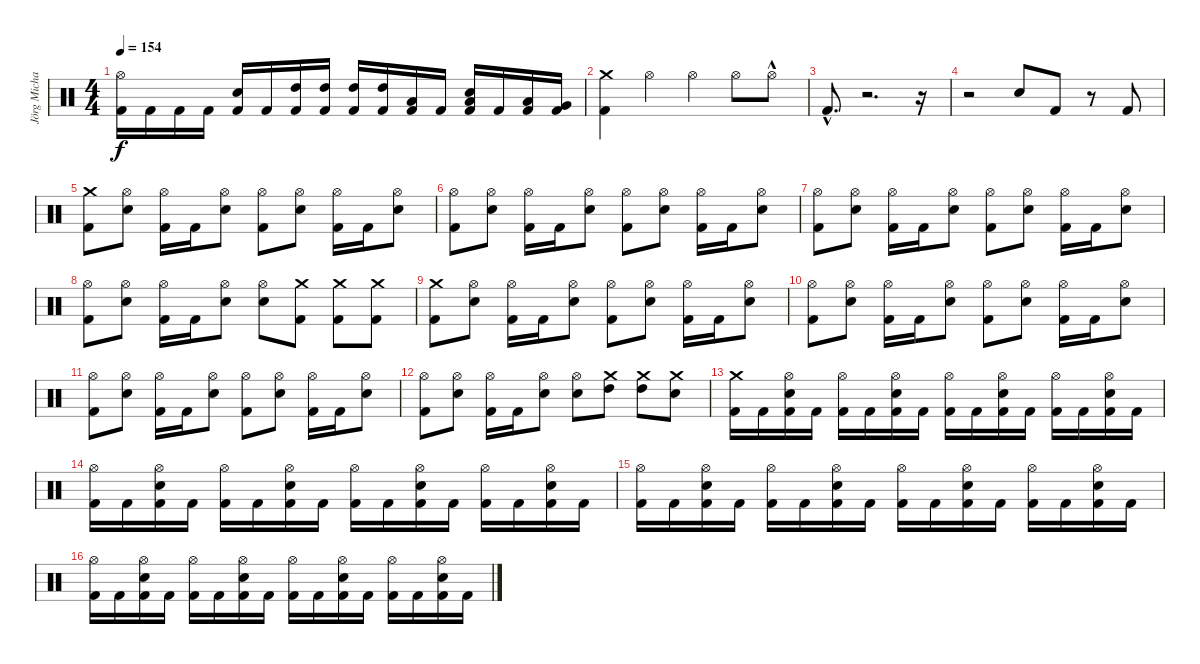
\track ("Jörg Michael" "Jörg Micha") {instrument percussion}
\staff {score}
\articulation defaults
\ts (4 4)
\tempo 154
\clef neutral
\ks c
("Hi-Hat (open)" "Kick (hit) 2").16{dy f} "Kick (hit) 2".16 "Kick (hit) 2".16 "Kick (hit) 2".16 ("Snare (hit) 2" "Kick (hit) 2").16 "Kick (hit) 2".16 ("High Tom (hit)" "Kick (hit) 2").16 ("High Tom (hit)" "Kick (hit) 2").16 ("High Tom (hit)" "Kick (hit) 2").16 ("High Tom (hit)" "Kick (hit) 2").16 ("Low Tom (hit)" "Kick (hit) 2").16 "Kick (hit) 2".16 ("Low Tom (hit)" "Snare (hit) 2" "Kick (hit) 2").16 "Kick (hit) 2".16 ("Low Floor Tom (hit)" "Kick (hit) 2").16 ("Very Low Tom (hit)" "Kick (hit) 2").16 |
("Crash medium (hit)" "Kick (hit) 2").4 "Hi-Hat (open)".4 "Hi-Hat (open)".4 "Hi-Hat (open)".8 "Hi-Hat (open)"{hac}.8 |
"Kick (hit) 2"{hac}.8{d} r.2{d} r.16 |
r.2 "Snare (hit) 2".8 "Kick (hit) 2".8 r.8 "Kick (hit) 2".8 |
("Kick (hit) 2" "Crash medium (hit)").8 ("Snare (hit) 2" "Hi-Hat (open)").8 ("Kick (hit) 2" "Hi-Hat (open)").16 "Kick (hit) 2".16 ("Snare (hit) 2" "Hi-Hat (open)").8 ("Kick (hit) 2" "Hi-Hat (open)").8 ("Snare (hit) 2" "Hi-Hat (open)").8 ("Kick (hit) 2" "Hi-Hat (open)").16 "Kick (hit) 2".16 ("Snare (hit) 2" "Hi-Hat (open)").8 |
("Hi-Hat (open)" "Kick (hit) 2").8 ("Snare (hit) 2" "Hi-Hat (open)").8 ("Kick (hit) 2" "Hi-Hat (open)").16 "Kick (hit) 2".16 ("Snare (hit) 2" "Hi-Hat (open)").8 ("Kick (hit) 2" "Hi-Hat (open)").8 ("Snare (hit) 2" "Hi-Hat (open)").8 ("Kick (hit) 2" "Hi-Hat (open)").16 "Kick (hit) 2".16 ("Snare (hit) 2" "Hi-Hat (open)").8 |
("Hi-Hat (open)" "Kick (hit) 2").8 ("Snare (hit) 2" "Hi-Hat (open)").8 ("Kick (hit) 2" "Hi-Hat (open)").16 "Kick (hit) 2".16 ("Snare (hit) 2" "Hi-Hat (open)").8 ("Kick (hit) 2" "Hi-Hat (open)").8 ("Snare (hit) 2" "Hi-Hat (open)").8 ("Kick (hit) 2" "Hi-Hat (open)").16 "Kick (hit) 2".16 ("Snare (hit) 2" "Hi-Hat (open)").8 |
("Hi-Hat (open)" "Kick (hit) 2").8 ("Snare (hit) 2" "Hi-Hat (open)").8 ("Kick (hit) 2" "Hi-Hat (open)").16 "Kick (hit) 2".16 ("Snare (hit) 2" "Hi-Hat (open)").8 ("Snare (hit) 2" "Hi-Hat (open)").8 ("Kick (hit) 2" "Crash medium (hit)").8 ("Kick (hit) 2" "Crash medium (hit)").8 ("Kick (hit) 2" "Crash medium (hit)").8 |
("Kick (hit) 2" "Crash medium (hit)").8 ("Snare (hit) 2" "Hi-Hat (open)").8 ("Kick (hit) 2" "Hi-Hat (open)").16 "Kick (hit) 2".16 ("Snare (hit) 2" "Hi-Hat (open)").8 ("Kick (hit) 2" "Hi-Hat (open)").8 ("Snare (hit) 2" "Hi-Hat (open)").8 ("Kick (hit) 2" "Hi-Hat (open)").16 "Kick (hit) 2".16 ("Snare (hit) 2" "Hi-Hat (open)").8 |
("Hi-Hat (open)" "Kick (hit) 2").8 ("Snare (hit) 2" "Hi-Hat (open)").8 ("Kick (hit) 2" "Hi-Hat (open)").16 "Kick (hit) 2".16 ("Snare (hit) 2" "Hi-Hat (open)").8 ("Kick (hit) 2" "Hi-Hat (open)").8 ("Snare (hit) 2" "Hi-Hat (open)").8 ("Kick (hit) 2" "Hi-Hat (open)").16 "Kick (hit) 2".16 ("Snare (hit) 2" "Hi-Hat (open)").8 |
("Hi-Hat (open)" "Kick (hit) 2").8 ("Snare (hit) 2" "Hi-Hat (open)").8 ("Kick (hit) 2" "Hi-Hat (open)").16 "Kick (hit) 2".16 ("Snare (hit) 2" "Hi-Hat (open)").8 ("Kick (hit) 2" "Hi-Hat (open)").8 ("Snare (hit) 2" "Hi-Hat (open)").8 ("Kick (hit) 2" "Hi-Hat (open)").16 "Kick (hit) 2".16 ("Snare (hit) 2" "Hi-Hat (open)").8 |
("Hi-Hat (open)" "Kick (hit) 2").8 ("Snare (hit) 2" "Hi-Hat (open)").8 ("Kick (hit) 2" "Hi-Hat (open)").16 "Kick (hit) 2".16 ("Snare (hit) 2" "Hi-Hat (open)").8 ("Snare (hit) 2" "Hi-Hat (open)").8 ("High Tom (hit)" "Crash medium (hit)").8 ("High Tom (hit)" "Crash medium (hit)").8 ("Snare (hit) 2" "Crash medium (hit)").8 |
("Crash medium (hit)" "Kick (hit) 2").16 "Kick (hit) 2".16 ("Snare (hit) 2" "Hi-Hat (open)" "Kick (hit) 2").16 "Kick (hit) 2".16 ("Hi-Hat (open)" "Kick (hit) 2").16 "Kick (hit) 2".16 ("Snare (hit) 2" "Hi-Hat (open)" "Kick (hit) 2").16 "Kick (hit) 2".16 ("Hi-Hat (open)" "Kick (hit) 2").16 "Kick (hit) 2".16 ("Snare (hit) 2" "Hi-Hat (open)" "Kick (hit) 2").16 "Kick (hit) 2".16 ("Hi-Hat (open)" "Kick (hit) 2").16 "Kick (hit) 2".16 ("Snare (hit) 2" "Hi-Hat (open)" "Kick (hit) 2").16 "Kick (hit) 2".16 |
("Hi-Hat (open)" "Kick (hit) 2").16 "Kick (hit) 2".16 ("Snare (hit) 2" "Hi-Hat (open)" "Kick (hit) 2").16 "Kick (hit) 2".16 ("Hi-Hat (open)" "Kick (hit) 2").16 "Kick (hit) 2".16 ("Snare (hit) 2" "Hi-Hat (open)" "Kick (hit) 2").16 "Kick (hit) 2".16 ("Hi-Hat (open)" "Kick (hit) 2").16 "Kick (hit) 2".16 ("Snare (hit) 2" "Hi-Hat (open)" "Kick (hit) 2").16 "Kick (hit) 2".16 ("Hi-Hat (open)" "Kick (hit) 2").16 "Kick (hit) 2".16 ("Snare (hit) 2" "Hi-Hat (open)" "Kick (hit) 2").16 "Kick (hit) 2".16 |
("Hi-Hat (open)" "Kick (hit) 2").16 "Kick (hit) 2".16 ("Snare (hit) 2" "Hi-Hat (open)" "Kick (hit) 2").16 "Kick (hit) 2".16 ("Hi-Hat (open)" "Kick (hit) 2").16 "Kick (hit) 2".16 ("Snare (hit) 2" "Hi-Hat (open)" "Kick (hit) 2").16 "Kick (hit) 2".16 ("Hi-Hat (open)" "Kick (hit) 2").16 "Kick (hit) 2".16 ("Snare (hit) 2" "Hi-Hat (open)" "Kick (hit) 2").16 "Kick (hit) 2".16 ("Hi-Hat (open)" "Kick (hit) 2").16 "Kick (hit) 2".16 ("Snare (hit) 2" "Hi-Hat (open)" "Kick (hit) 2").16 "Kick (hit) 2".16 |
("Hi-Hat (open)" "Kick (hit) 2").16 "Kick (hit) 2".16 ("Snare (hit) 2" "Hi-Hat (open)" "Kick (hit) 2").16 "Kick (hit) 2".16 ("Hi-Hat (open)" "Kick (hit) 2").16 "Kick (hit) 2".16 ("Snare (hit) 2" "Hi-Hat (open)" "Kick (hit) 2").16 "Kick (hit) 2".16 ("Hi-Hat (open)" "Kick (hit) 2").16 "Kick (hit) 2".16 ("Snare (hit) 2" "Hi-Hat (open)" "Kick (hit) 2").16 "Kick (hit) 2".16 ("Hi-Hat (open)" "Kick (hit) 2").16 "Kick (hit) 2".16 ("Snare (hit) 2" "Hi-Hat (open)" "Kick (hit) 2").16 "Kick (hit) 2".16
